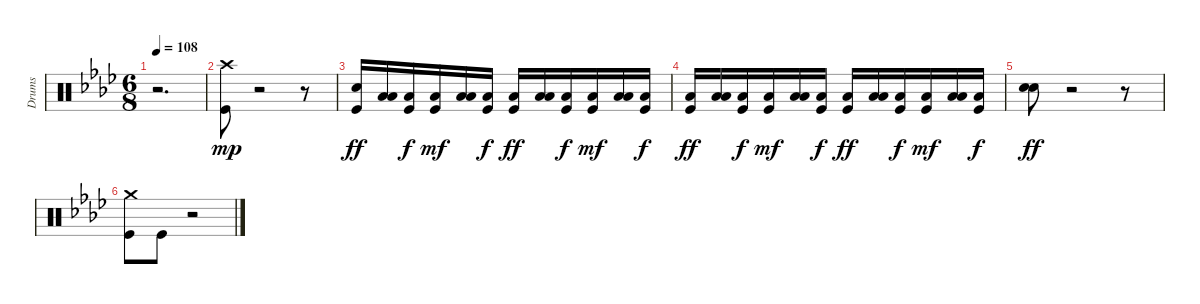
\track ("Drums" "Drums") {instrument percussion}
\staff {score}
\articulation defaults
\ts (6 8)
\tempo 108
\clef neutral
\ks ab
r.2{d dy mp} |
("Kick (hit)" "Crash high (hit)").8 r.2 r.8 |
("Kick (hit)" "Electric Snare (hit)").16{dy ff} ("Low Floor Tom (hit)" "Low Tom (hit)").16 ("Kick (hit)" "Low Floor Tom (hit)").16{dy f} ("Kick (hit)" "Low Tom (hit)").16{dy mf} ("Low Floor Tom (hit)" "Low Tom (hit)").16 ("Kick (hit)" "Low Floor Tom (hit)").16{dy f} ("Kick (hit)" "Low Tom (hit)").16{dy ff} ("Low Floor Tom (hit)" "Low Tom (hit)").16 ("Kick (hit)" "Low Floor Tom (hit)").16{dy f} ("Kick (hit)" "Low Tom (hit)").16{dy mf} ("Low Floor Tom (hit)" "Low Tom (hit)").16 ("Kick (hit)" "Low Floor Tom (hit)").16{dy f} |
("Kick (hit)" "Low Tom (hit)").16{dy ff} ("Low Floor Tom (hit)" "Low Tom (hit)").16 ("Kick (hit)" "Low Floor Tom (hit)").16{dy f} ("Kick (hit)" "Low Tom (hit)").16{dy mf} ("Low Floor Tom (hit)" "Low Tom (hit)").16 ("Kick (hit)" "Low Floor Tom (hit)").16{dy f} ("Kick (hit)" "Low Tom (hit)").16{dy ff} ("Low Floor Tom (hit)" "Low Tom (hit)").16 ("Kick (hit)" "Low Floor Tom (hit)").16{dy f} ("Kick (hit)" "Low Tom (hit)").16{dy mf} ("Low Floor Tom (hit)" "Low Tom (hit)").16 ("Kick (hit)" "Low Floor Tom (hit)").16{dy f} |
("Electric Snare (hit)" "Electric Snare (hit)").8{dy ff} r.2 r.8 |
("Kick (hit)" "Crash medium (hit)").8 "Kick (hit)".8 r.2
